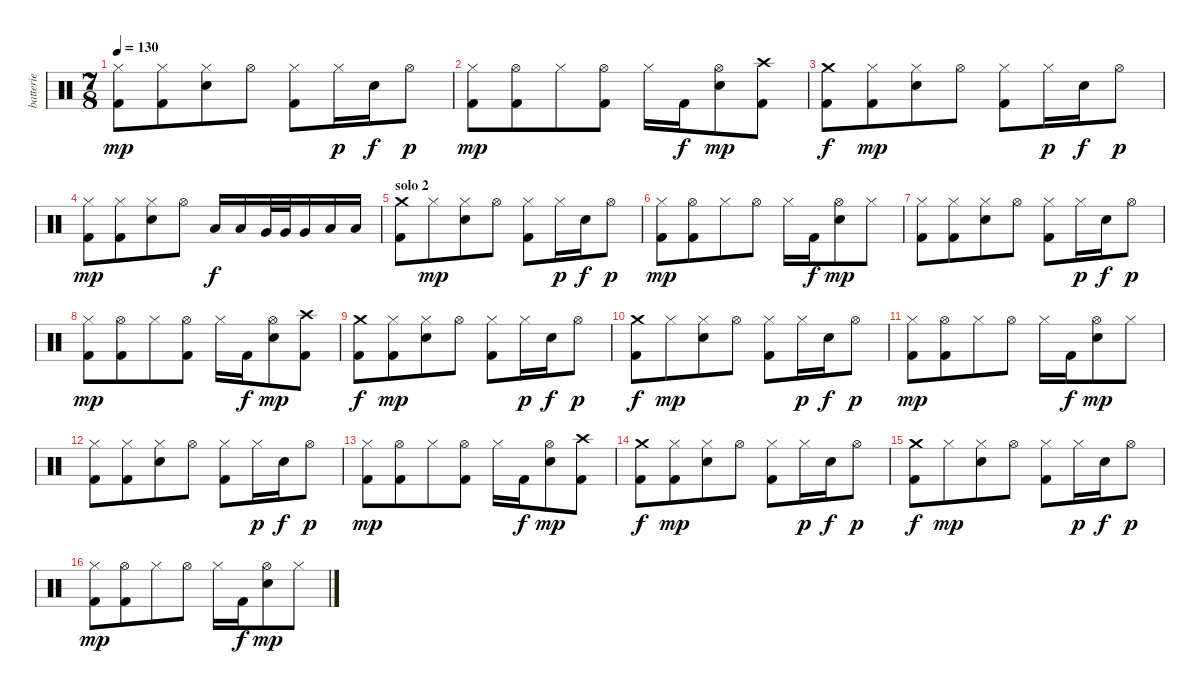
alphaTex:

\track ("batterie" "batterie") {instrument percussion}
\staff {score}
\articulation defaults
\ts (7 8)
\tempo 130
\clef neutral
\ks c
("Hi-Hat (closed)" "Kick (hit) 2").8{dy mp} ("Hi-Hat (closed)" "Kick (hit) 2").8 ("Hi-Hat (closed)" "Electric Snare (hit)").8 "Hi-Hat (open)".8 ("Hi-Hat (closed)" "Kick (hit) 2").8 "Hi-Hat (closed)".16{dy p} "Electric Snare (hit)".16{dy f} "Hi-Hat (open)".8{dy p} |
("Hi-Hat (closed)" "Kick (hit) 2").8{dy mp} ("Hi-Hat (open)" "Kick (hit) 2").8 "Hi-Hat (closed)".8 ("Hi-Hat (open)" "Kick (hit) 2").8 "Hi-Hat (closed)".16 "Kick (hit) 2".16{dy f} ("Hi-Hat (open)" "Electric Snare (hit)").8{dy mp} ("Crash high (hit)" "Kick (hit) 2").8 |
("Crash medium (hit)" "Kick (hit) 2").8{dy f} ("Hi-Hat (closed)" "Kick (hit) 2").8{dy mp} ("Hi-Hat (closed)" "Electric Snare (hit)").8 "Hi-Hat (open)".8 ("Hi-Hat (closed)" "Kick (hit) 2").8 "Hi-Hat (closed)".16{dy p} "Electric Snare (hit)".16{dy f} "Hi-Hat (open)".8{dy p} |
("Hi-Hat (closed)" "Kick (hit) 2").8{dy mp} ("Hi-Hat (closed)" "Kick (hit) 2").8 ("Hi-Hat (closed)" "Electric Snare (hit)").8 "Hi-Hat (open)".8 "Low Tom (hit)".16{dy f} "Low Tom (hit)".16 "Very Low Tom (hit)".32 "Very Low Tom (hit)".32 "Very Low Tom (hit)".16 "Low Floor Tom (hit)".16 "Low Floor Tom (hit)".16 |
\section ("" "solo 2")
("Crash medium (hit)" "Kick (hit) 2").8 "Hi-Hat (closed)".8{dy mp} ("Hi-Hat (closed)" "Electric Snare (hit)").8 "Hi-Hat (open)".8 ("Hi-Hat (closed)" "Kick (hit) 2").8 "Hi-Hat (closed)".16{dy p} "Electric Snare (hit)".16{dy f} "Hi-Hat (open)".8{dy p} |
("Hi-Hat (closed)" "Kick (hit) 2").8{dy mp} ("Hi-Hat (open)" "Kick (hit) 2").8 "Hi-Hat (closed)".8 "Hi-Hat (open)".8 "Hi-Hat (closed)".16 "Kick (hit) 2".16{dy f} ("Hi-Hat (open)" "Electric Snare (hit)").8{dy mp} "Hi-Hat (closed)".8 |
("Hi-Hat (closed)" "Kick (hit) 2").8 ("Hi-Hat (closed)" "Kick (hit) 2").8 ("Hi-Hat (closed)" "Electric Snare (hit)").8 "Hi-Hat (open)".8 ("Hi-Hat (closed)" "Kick (hit) 2").8 "Hi-Hat (closed)".16{dy p} "Electric Snare (hit)".16{dy f} "Hi-Hat (open)".8{dy p} |
("Hi-Hat (closed)" "Kick (hit) 2").8{dy mp} ("Hi-Hat (open)" "Kick (hit) 2").8 "Hi-Hat (closed)".8 ("Hi-Hat (open)" "Kick (hit) 2").8 "Hi-Hat (closed)".16 "Kick (hit) 2".16{dy f} ("Hi-Hat (open)" "Electric Snare (hit)").8{dy mp} ("Crash high (hit)" "Kick (hit) 2").8 |
("Crash medium (hit)" "Kick (hit) 2").8{dy f} ("Hi-Hat (closed)" "Kick (hit) 2").8{dy mp} ("Hi-Hat (closed)" "Electric Snare (hit)").8 "Hi-Hat (open)".8 ("Hi-Hat (closed)" "Kick (hit) 2").8 "Hi-Hat (closed)".16{dy p} "Electric Snare (hit)".16{dy f} "Hi-Hat (open)".8{dy p} |
("Crash medium (hit)" "Kick (hit) 2").8{dy f} "Hi-Hat (closed)".8{dy mp} ("Hi-Hat (closed)" "Electric Snare (hit)").8 "Hi-Hat (open)".8 ("Hi-Hat (closed)" "Kick (hit) 2").8 "Hi-Hat (closed)".16{dy p} "Electric Snare (hit)".16{dy f} "Hi-Hat (open)".8{dy p} |
("Hi-Hat (closed)" "Kick (hit) 2").8{dy mp} ("Hi-Hat (open)" "Kick (hit) 2").8 "Hi-Hat (closed)".8 "Hi-Hat (open)".8 "Hi-Hat (closed)".16 "Kick (hit) 2".16{dy f} ("Hi-Hat (open)" "Electric Snare (hit)").8{dy mp} "Hi-Hat (closed)".8 |
("Hi-Hat (closed)" "Kick (hit) 2").8 ("Hi-Hat (closed)" "Kick (hit) 2").8 ("Hi-Hat (closed)" "Electric Snare (hit)").8 "Hi-Hat (open)".8 ("Hi-Hat (closed)" "Kick (hit) 2").8 "Hi-Hat (closed)".16{dy p} "Electric Snare (hit)".16{dy f} "Hi-Hat (open)".8{dy p} |
("Hi-Hat (closed)" "Kick (hit) 2").8{dy mp} ("Hi-Hat (open)" "Kick (hit) 2").8 "Hi-Hat (closed)".8 ("Hi-Hat (open)" "Kick (hit) 2").8 "Hi-Hat (closed)".16 "Kick (hit) 2".16{dy f} ("Hi-Hat (open)" "Electric Snare (hit)").8{dy mp} ("Crash high (hit)" "Kick (hit) 2").8 |
("Crash medium (hit)" "Kick (hit) 2").8{dy f} ("Hi-Hat (closed)" "Kick (hit) 2").8{dy mp} ("Hi-Hat (closed)" "Electric Snare (hit)").8 "Hi-Hat (open)".8 ("Hi-Hat (closed)" "Kick (hit) 2").8 "Hi-Hat (closed)".16{dy p} "Electric Snare (hit)".16{dy f} "Hi-Hat (open)".8{dy p} |
("Crash medium (hit)" "Kick (hit) 2").8{dy f} "Hi-Hat (closed)".8{dy mp} ("Hi-Hat (closed)" "Electric Snare (hit)").8 "Hi-Hat (open)".8 ("Hi-Hat (closed)" "Kick (hit) 2").8 "Hi-Hat (closed)".16{dy p} "Electric Snare (hit)".16{dy f} "Hi-Hat (open)".8{dy p} |
("Hi-Hat (closed)" "Kick (hit) 2").8{dy mp} ("Hi-Hat (open)" "Kick (hit) 2").8 "Hi-Hat (closed)".8 "Hi-Hat (open)".8 "Hi-Hat (closed)".16 "Kick (hit) 2".16{dy f} ("Hi-Hat (open)" "Electric Snare (hit)").8{dy mp} "Hi-Hat (closed)".8
